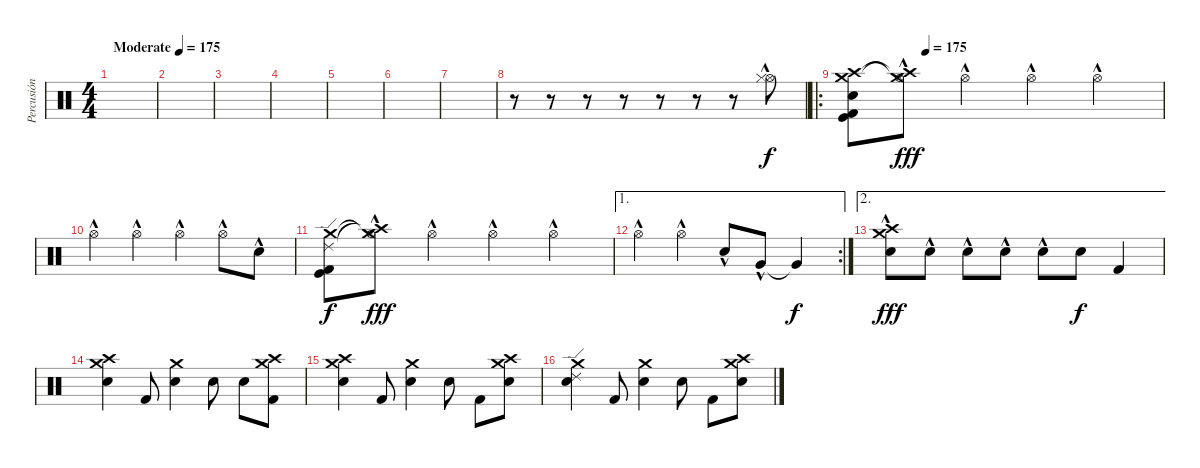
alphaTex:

\track ("Percusión" "Percusión") {instrument percussion}
\staff {score}
\articulation defaults
\ts (4 4)
\tempo (175 "Moderate")
\tempo 168
\tempo (175 "Moderate")
\clef neutral
\ks c
|
|
|
|
|
|
|
r.8 r.8 r.8 r.8 r.8 r.8 r.8 ("Hi-Hat (open)"{hac} "Hi-Hat (closed)"{hac}).8 |
\ro
\tempo (175 0.25)
("Crash medium (hit)" "Crash high (hit)" "Kick (hit)" "Kick (hit) 2" "Snare (hit) 2").8{dy f} ("Crash high (hit)"{t} "Crash medium (hit)"{t} "Hi-Hat (open)"{hac}).8{dy fff} "Hi-Hat (open)"{hac}.4 "Hi-Hat (open)"{hac}.4 "Hi-Hat (open)"{hac}.4 |
"Hi-Hat (open)"{hac}.4 "Hi-Hat (open)"{hac}.4 "Hi-Hat (open)"{hac}.4 "Hi-Hat (open)"{hac}.8 "Snare (hit) 2"{hac}.8 |
("Ride (edge) 2" "Crash medium (hit)" "Kick (hit)" "Kick (hit) 2").8{dy f} ("Crash high (hit)"{t} "Crash medium (hit)"{t} "Hi-Hat (open)"{hac}).8{dy fff} "Hi-Hat (open)"{hac}.4 "Hi-Hat (open)"{hac}.4 "Hi-Hat (open)"{hac}.4 |
\ae 1
\rc 2 "Hi-Hat (open)"{hac}.4 "Hi-Hat (open)"{hac}.4 "Snare (hit) 2"{hac}.8 "Very Low Tom (hit)"{hac}.8 "Very Low Tom (hit)"{t}.4{dy f}
|
\ae 2
("Crash high (hit)" "Crash medium (hit)" "Snare (hit) 2"{hac}).8{dy fff} "Snare (hit) 2"{hac}.8 "Snare (hit) 2"{hac}.8 "Snare (hit) 2"{hac}.8 "Snare (hit) 2"{hac}.8 "Snare (hit) 2".8{dy f} "Kick (hit) 2".4 |
("Crash high (hit)" "Crash medium (hit)" "Snare (hit) 2").4 "Kick (hit) 2".8 ("Crash medium (hit)" "Snare (hit) 2").4 "Snare (hit) 2".8 "Snare (hit) 2".8 ("Crash high (hit)" "Crash medium (hit)" "Kick (hit) 2").8 |
("Crash high (hit)" "Crash medium (hit)" "Snare (hit) 2").4 "Kick (hit) 2".8 ("Crash medium (hit)" "Snare (hit) 2").4 "Snare (hit) 2".8 "Kick (hit) 2".8 ("Crash high (hit)" "Crash medium (hit)" "Snare (hit) 2").8 |
("Ride (edge) 2" "Crash medium (hit)" "Snare (hit) 2").4 "Kick (hit) 2".8 ("Crash medium (hit)" "Snare (hit) 2").4 "Snare (hit) 2".8 "Kick (hit) 2".8 ("Crash high (hit)" "Crash medium (hit)" "Snare (hit) 2").8
